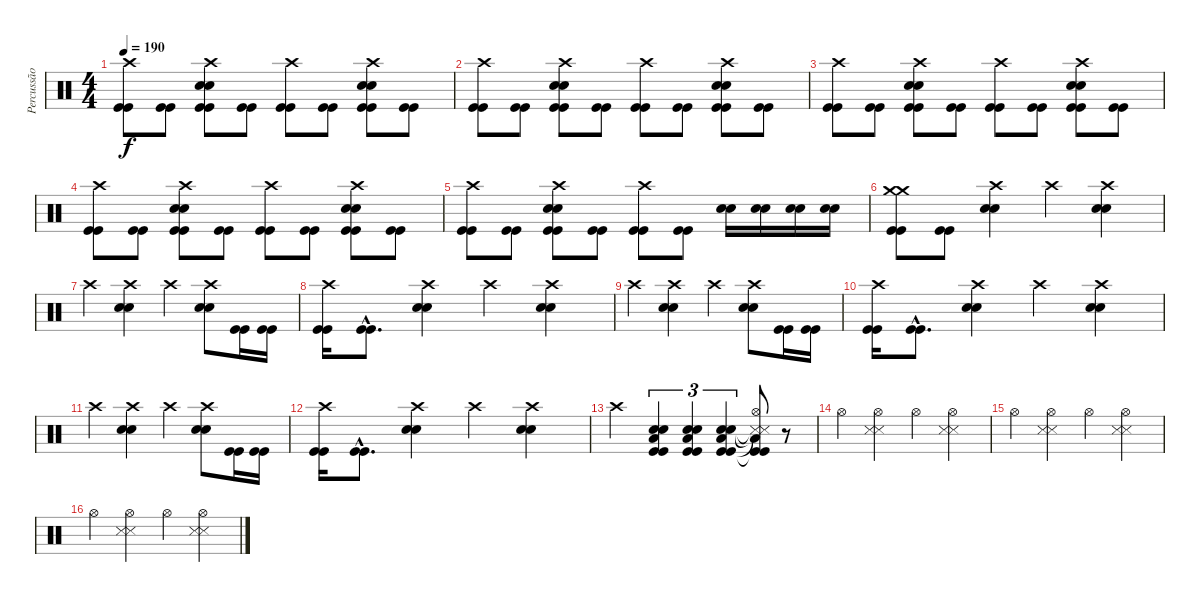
\track ("Percussão" "Percussão") {instrument percussion}
\staff {score}
\articulation defaults
\ts (4 4)
\tempo 190
\clef neutral
\ks c
("Crash high (hit)" "Kick (hit)" "Kick (hit)").8{dy f} ("Kick (hit)" "Kick (hit)").8 ("Crash high (hit)" "Snare (hit) 2" "Snare (hit) 2" "Kick (hit)" "Kick (hit)").8 ("Kick (hit)" "Kick (hit)").8 ("Crash high (hit)" "Kick (hit)" "Kick (hit)").8 ("Kick (hit)" "Kick (hit)").8 ("Crash high (hit)" "Snare (hit) 2" "Snare (hit) 2" "Kick (hit)" "Kick (hit)").8 ("Kick (hit)" "Kick (hit)").8 |
("Crash high (hit)" "Kick (hit)" "Kick (hit)").8 ("Kick (hit)" "Kick (hit)").8 ("Crash high (hit)" "Snare (hit) 2" "Snare (hit) 2" "Kick (hit)" "Kick (hit)").8 ("Kick (hit)" "Kick (hit)").8 ("Crash high (hit)" "Kick (hit)" "Kick (hit)").8 ("Kick (hit)" "Kick (hit)").8 ("Crash high (hit)" "Snare (hit) 2" "Snare (hit) 2" "Kick (hit)" "Kick (hit)").8 ("Kick (hit)" "Kick (hit)").8 |
("Crash high (hit)" "Kick (hit)" "Kick (hit)").8 ("Kick (hit)" "Kick (hit)").8 ("Crash high (hit)" "Snare (hit) 2" "Snare (hit) 2" "Kick (hit)" "Kick (hit)").8 ("Kick (hit)" "Kick (hit)").8 ("Crash high (hit)" "Kick (hit)" "Kick (hit)").8 ("Kick (hit)" "Kick (hit)").8 ("Crash high (hit)" "Snare (hit) 2" "Snare (hit) 2" "Kick (hit)" "Kick (hit)").8 ("Kick (hit)" "Kick (hit)").8 |
("Crash high (hit)" "Kick (hit)" "Kick (hit)").8 ("Kick (hit)" "Kick (hit)").8 ("Crash high (hit)" "Snare (hit) 2" "Snare (hit) 2" "Kick (hit)" "Kick (hit)").8 ("Kick (hit)" "Kick (hit)").8 ("Crash high (hit)" "Kick (hit)" "Kick (hit)").8 ("Kick (hit)" "Kick (hit)").8 ("Crash high (hit)" "Snare (hit) 2" "Snare (hit) 2" "Kick (hit)" "Kick (hit)").8 ("Kick (hit)" "Kick (hit)").8 |
("Crash high (hit)" "Kick (hit)" "Kick (hit)").8 ("Kick (hit)" "Kick (hit)").8 ("Crash high (hit)" "Snare (hit) 2" "Snare (hit) 2" "Kick (hit)" "Kick (hit)").8 ("Kick (hit)" "Kick (hit)").8 ("Crash high (hit)" "Kick (hit)" "Kick (hit)").8 ("Kick (hit)" "Kick (hit)").8 ("Snare (hit) 2" "Snare (hit) 2").16 ("Snare (hit) 2" "Snare (hit) 2").16 ("Snare (hit) 2" "Snare (hit) 2").16 ("Snare (hit) 2" "Snare (hit) 2").16 |
("Crash medium (hit)" "Crash medium (hit)" "Kick (hit)" "Kick (hit)").8 ("Kick (hit)" "Kick (hit)").8 ("Crash high (hit)" "Snare (hit) 2" "Snare (hit) 2").4 "Crash high (hit)".4 ("Crash high (hit)" "Snare (hit) 2" "Snare (hit) 2").4 |
"Crash high (hit)".4 ("Crash high (hit)" "Snare (hit) 2" "Snare (hit) 2").4 "Crash high (hit)".4 ("Crash high (hit)" "Snare (hit) 2" "Snare (hit) 2").8 ("Kick (hit)" "Kick (hit)").16 ("Kick (hit)" "Kick (hit)").16 |
("Crash high (hit)" "Kick (hit)" "Kick (hit)").16 ("Kick (hit)"{hac} "Kick (hit)"{hac}).8{d} ("Crash high (hit)" "Snare (hit) 2" "Snare (hit) 2").4 "Crash high (hit)".4 ("Crash high (hit)" "Snare (hit) 2" "Snare (hit) 2").4 |
"Crash high (hit)".4 ("Crash high (hit)" "Snare (hit) 2" "Snare (hit) 2").4 "Crash high (hit)".4 ("Crash high (hit)" "Snare (hit) 2" "Snare (hit) 2").8 ("Kick (hit)" "Kick (hit)").16 ("Kick (hit)" "Kick (hit)").16 |
("Crash high (hit)" "Kick (hit)" "Kick (hit)").16 ("Kick (hit)"{hac} "Kick (hit)"{hac}).8{d} ("Crash high (hit)" "Snare (hit) 2" "Snare (hit) 2").4 "Crash high (hit)".4 ("Crash high (hit)" "Snare (hit) 2" "Snare (hit) 2").4 |
"Crash high (hit)".4 ("Crash high (hit)" "Snare (hit) 2" "Snare (hit) 2").4 "Crash high (hit)".4 ("Crash high (hit)" "Snare (hit) 2" "Snare (hit) 2").8 ("Kick (hit)" "Kick (hit)").16 ("Kick (hit)" "Kick (hit)").16 |
("Crash high (hit)" "Kick (hit)" "Kick (hit)").16 ("Kick (hit)"{hac} "Kick (hit)"{hac}).8{d} ("Crash high (hit)" "Snare (hit) 2" "Snare (hit) 2").4 "Crash high (hit)".4 ("Crash high (hit)" "Snare (hit) 2" "Snare (hit) 2").4 |
"Crash high (hit)".4 ("Low Floor Tom (hit)" "Snare (hit) 2" "Snare (hit) 2" "Kick (hit)" "Kick (hit)").4{tu (3 2)} ("Low Floor Tom (hit)" "Snare (hit) 2" "Snare (hit) 2" "Kick (hit)" "Kick (hit)").4{tu (3 2)} ("Low Floor Tom (hit)" "Snare (hit) 2" "Snare (hit) 2" "Kick (hit)" "Kick (hit)").4{tu (3 2)} ("Hi-Hat (open)" "Low Floor Tom (hit)"{t} "Snare (side stick) 3"{t} "Snare (side stick) 3"{t} "Kick (hit)"{t} "Kick (hit)").8 r.8 |
"Hi-Hat (open)".4 ("Hi-Hat (open)" "Snare (side stick) 3" "Snare (side stick) 3").4 "Hi-Hat (open)".4 ("Hi-Hat (open)" "Snare (side stick) 3" "Snare (side stick) 3").4 |
"Hi-Hat (open)".4 ("Hi-Hat (open)" "Snare (side stick) 3" "Snare (side stick) 3").4 "Hi-Hat (open)".4 ("Hi-Hat (open)" "Snare (side stick) 3" "Snare (side stick) 3").4 |
"Hi-Hat (open)".4 ("Hi-Hat (open)" "Snare (side stick) 3" "Snare (side stick) 3").4 "Hi-Hat (open)".4 ("Hi-Hat (open)" "Snare (side stick) 3" "Snare (side stick) 3").4
